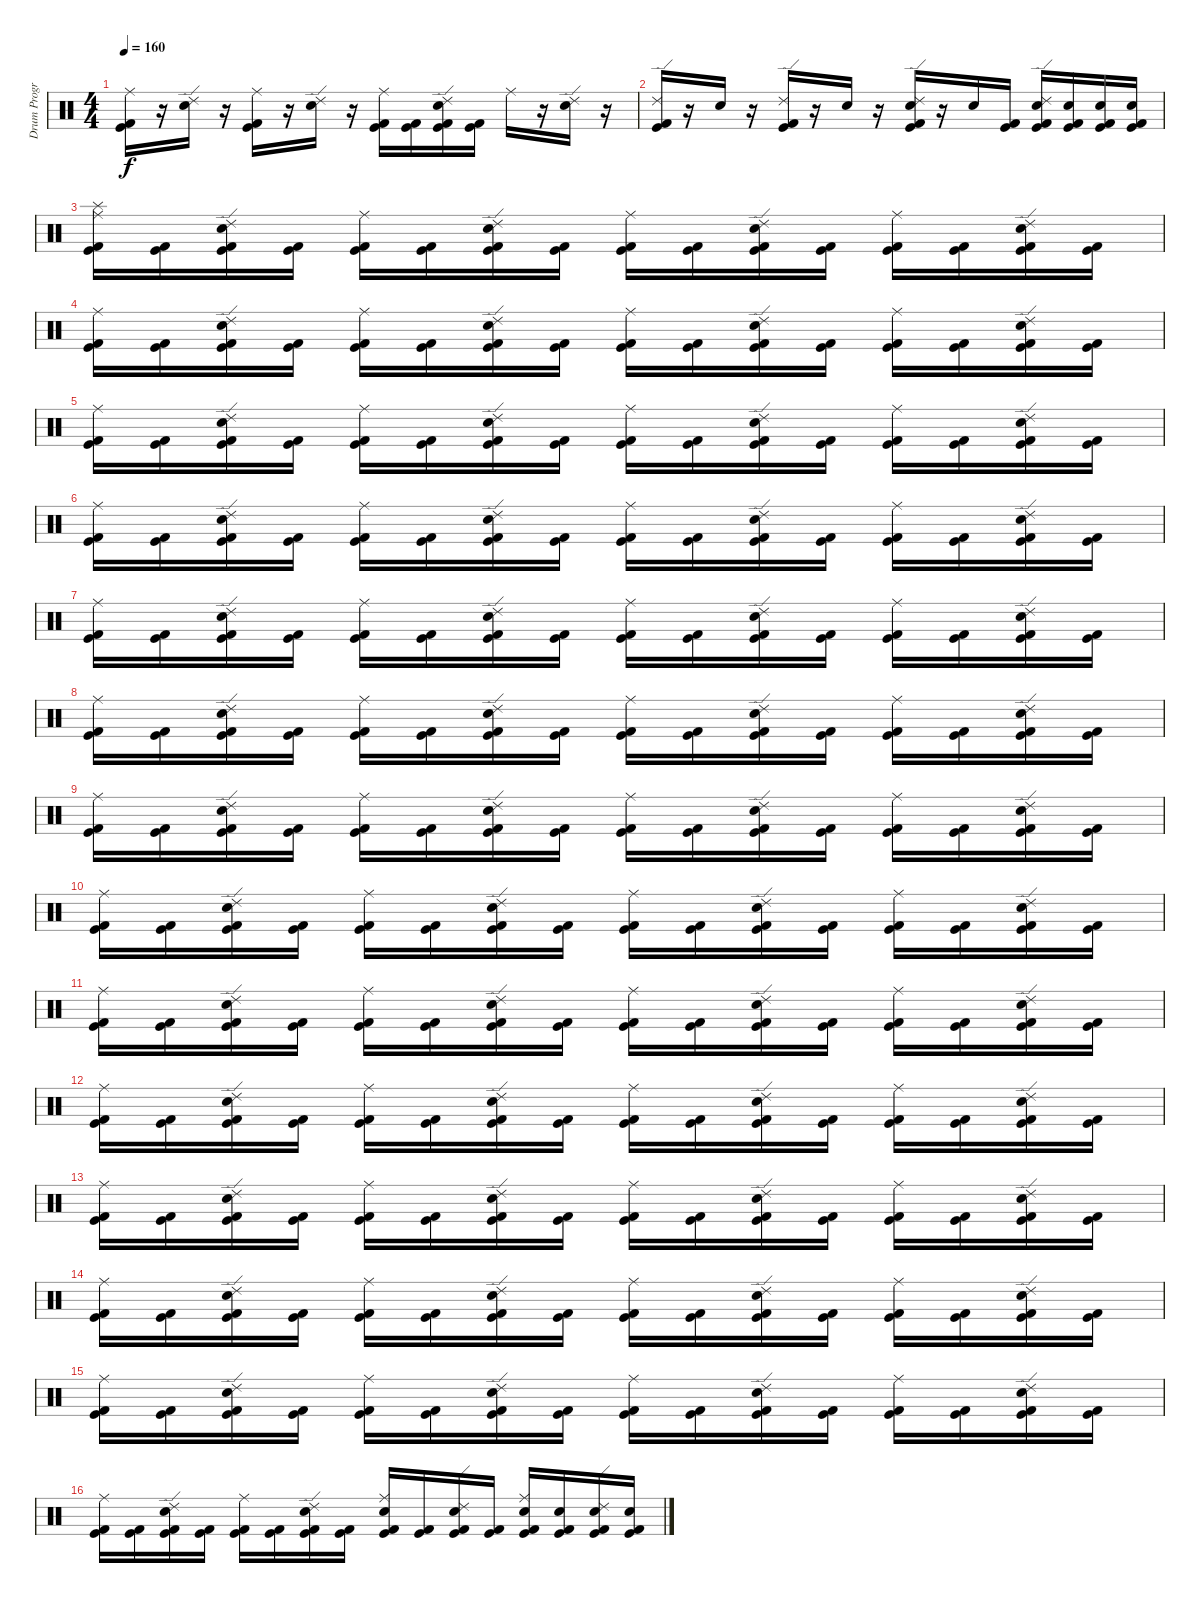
\track ("Drum Program - BG" "Drum Progr") {instrument percussion}
\staff {score}
\articulation defaults
\ts (4 4)
\tempo 160
\clef neutral
\ks c
("Kick (hit) 2" "Kick (hit)" "Ride (middle)").16{dy f} r.16 ("Electric Snare (hit)" "Ride (edge) 2").16 r.16 ("Kick (hit)" "Kick (hit) 2" "Ride (middle)").16 r.16 ("Electric Snare (hit)" "Ride (edge) 2").16 r.16 ("Kick (hit)" "Kick (hit) 2" "Ride (middle)").16 ("Kick (hit)" "Kick (hit) 2").16 ("Kick (hit)" "Kick (hit) 2" "Electric Snare (hit)" "Ride (edge) 2").16 ("Kick (hit)" "Kick (hit) 2").16 "Ride (middle)".16 r.16 ("Electric Snare (hit)" "Ride (edge) 2").16 r.16 |
("Kick (hit)" "Kick (hit) 2" "Ride (edge) 2").16 r.16 "Electric Snare (hit)".16 r.16 ("Kick (hit)" "Kick (hit) 2" "Ride (edge) 2").16 r.16 "Electric Snare (hit)".16 r.16 ("Kick (hit)" "Kick (hit) 2" "Electric Snare (hit)" "Ride (edge) 2").16 r.16 "Electric Snare (hit)".16 ("Kick (hit)" "Kick (hit) 2").16 ("Kick (hit)" "Kick (hit) 2" "Electric Snare (hit)" "Ride (edge) 2").16 ("Kick (hit)" "Kick (hit) 2" "Electric Snare (hit)").16 ("Kick (hit)" "Kick (hit) 2" "Electric Snare (hit)").16 ("Kick (hit)" "Kick (hit) 2" "Electric Snare (hit)").16 |
("Kick (hit)" "Kick (hit) 2" "Splash (hit)" "Ride (middle)").16 ("Kick (hit)" "Kick (hit) 2").16 ("Kick (hit)" "Kick (hit) 2" "Electric Snare (hit)" "Ride (edge) 2").16 ("Kick (hit)" "Kick (hit) 2").16 ("Kick (hit)" "Kick (hit) 2" "Ride (middle)").16 ("Kick (hit)" "Kick (hit) 2").16 ("Kick (hit)" "Kick (hit) 2" "Electric Snare (hit)" "Ride (edge) 2").16 ("Kick (hit)" "Kick (hit) 2").16 ("Kick (hit)" "Kick (hit) 2" "Ride (middle)").16 ("Kick (hit)" "Kick (hit) 2").16 ("Kick (hit)" "Kick (hit) 2" "Electric Snare (hit)" "Ride (edge) 2").16 ("Kick (hit)" "Kick (hit) 2").16 ("Kick (hit)" "Kick (hit) 2" "Ride (middle)").16 ("Kick (hit)" "Kick (hit) 2").16 ("Kick (hit)" "Kick (hit) 2" "Electric Snare (hit)" "Ride (edge) 2").16 ("Kick (hit)" "Kick (hit) 2").16 |
("Kick (hit)" "Kick (hit) 2" "Ride (middle)").16 ("Kick (hit)" "Kick (hit) 2").16 ("Kick (hit)" "Kick (hit) 2" "Electric Snare (hit)" "Ride (edge) 2").16 ("Kick (hit)" "Kick (hit) 2").16 ("Kick (hit)" "Kick (hit) 2" "Ride (middle)").16 ("Kick (hit)" "Kick (hit) 2").16 ("Kick (hit)" "Kick (hit) 2" "Electric Snare (hit)" "Ride (edge) 2").16 ("Kick (hit)" "Kick (hit) 2").16 ("Kick (hit)" "Kick (hit) 2" "Ride (middle)").16 ("Kick (hit)" "Kick (hit) 2").16 ("Kick (hit)" "Kick (hit) 2" "Electric Snare (hit)" "Ride (edge) 2").16 ("Kick (hit)" "Kick (hit) 2").16 ("Kick (hit)" "Kick (hit) 2" "Ride (middle)").16 ("Kick (hit)" "Kick (hit) 2").16 ("Kick (hit)" "Kick (hit) 2" "Electric Snare (hit)" "Ride (edge) 2").16 ("Kick (hit)" "Kick (hit) 2").16 |
("Kick (hit)" "Kick (hit) 2" "Ride (middle)").16 ("Kick (hit)" "Kick (hit) 2").16 ("Kick (hit)" "Kick (hit) 2" "Electric Snare (hit)" "Ride (edge) 2").16 ("Kick (hit)" "Kick (hit) 2").16 ("Kick (hit)" "Kick (hit) 2" "Ride (middle)").16 ("Kick (hit)" "Kick (hit) 2").16 ("Kick (hit)" "Kick (hit) 2" "Electric Snare (hit)" "Ride (edge) 2").16 ("Kick (hit)" "Kick (hit) 2").16 ("Kick (hit)" "Kick (hit) 2" "Ride (middle)").16 ("Kick (hit)" "Kick (hit) 2").16 ("Kick (hit)" "Kick (hit) 2" "Electric Snare (hit)" "Ride (edge) 2").16 ("Kick (hit)" "Kick (hit) 2").16 ("Kick (hit)" "Kick (hit) 2" "Ride (middle)").16 ("Kick (hit)" "Kick (hit) 2").16 ("Kick (hit)" "Kick (hit) 2" "Electric Snare (hit)" "Ride (edge) 2").16 ("Kick (hit)" "Kick (hit) 2").16 |
("Kick (hit)" "Kick (hit) 2" "Ride (middle)").16 ("Kick (hit)" "Kick (hit) 2").16 ("Kick (hit)" "Kick (hit) 2" "Electric Snare (hit)" "Ride (edge) 2").16 ("Kick (hit)" "Kick (hit) 2").16 ("Kick (hit)" "Kick (hit) 2" "Ride (middle)").16 ("Kick (hit)" "Kick (hit) 2").16 ("Kick (hit)" "Kick (hit) 2" "Electric Snare (hit)" "Ride (edge) 2").16 ("Kick (hit)" "Kick (hit) 2").16 ("Kick (hit)" "Kick (hit) 2" "Ride (middle)").16 ("Kick (hit)" "Kick (hit) 2").16 ("Kick (hit)" "Kick (hit) 2" "Electric Snare (hit)" "Ride (edge) 2").16 ("Kick (hit)" "Kick (hit) 2").16 ("Kick (hit)" "Kick (hit) 2" "Ride (middle)").16 ("Kick (hit)" "Kick (hit) 2").16 ("Kick (hit)" "Kick (hit) 2" "Electric Snare (hit)" "Ride (edge) 2").16 ("Kick (hit)" "Kick (hit) 2").16 |
("Kick (hit)" "Kick (hit) 2" "Ride (middle)").16 ("Kick (hit)" "Kick (hit) 2").16 ("Kick (hit)" "Kick (hit) 2" "Electric Snare (hit)" "Ride (edge) 2").16 ("Kick (hit)" "Kick (hit) 2").16 ("Kick (hit)" "Kick (hit) 2" "Ride (middle)").16 ("Kick (hit)" "Kick (hit) 2").16 ("Kick (hit)" "Kick (hit) 2" "Electric Snare (hit)" "Ride (edge) 2").16 ("Kick (hit)" "Kick (hit) 2").16 ("Kick (hit)" "Kick (hit) 2" "Ride (middle)").16 ("Kick (hit)" "Kick (hit) 2").16 ("Kick (hit)" "Kick (hit) 2" "Electric Snare (hit)" "Ride (edge) 2").16 ("Kick (hit)" "Kick (hit) 2").16 ("Kick (hit)" "Kick (hit) 2" "Ride (middle)").16 ("Kick (hit)" "Kick (hit) 2").16 ("Kick (hit)" "Kick (hit) 2" "Electric Snare (hit)" "Ride (edge) 2").16 ("Kick (hit)" "Kick (hit) 2").16 |
("Kick (hit)" "Kick (hit) 2" "Ride (middle)").16 ("Kick (hit)" "Kick (hit) 2").16 ("Kick (hit)" "Kick (hit) 2" "Electric Snare (hit)" "Ride (edge) 2").16 ("Kick (hit)" "Kick (hit) 2").16 ("Kick (hit)" "Kick (hit) 2" "Ride (middle)").16 ("Kick (hit)" "Kick (hit) 2").16 ("Kick (hit)" "Kick (hit) 2" "Electric Snare (hit)" "Ride (edge) 2").16 ("Kick (hit)" "Kick (hit) 2").16 ("Kick (hit)" "Kick (hit) 2" "Ride (middle)").16 ("Kick (hit)" "Kick (hit) 2").16 ("Kick (hit)" "Kick (hit) 2" "Electric Snare (hit)" "Ride (edge) 2").16 ("Kick (hit)" "Kick (hit) 2").16 ("Kick (hit)" "Kick (hit) 2" "Ride (middle)").16 ("Kick (hit)" "Kick (hit) 2").16 ("Kick (hit)" "Kick (hit) 2" "Electric Snare (hit)" "Ride (edge) 2").16 ("Kick (hit)" "Kick (hit) 2").16 |
("Kick (hit)" "Kick (hit) 2" "Ride (middle)").16 ("Kick (hit)" "Kick (hit) 2").16 ("Kick (hit)" "Kick (hit) 2" "Electric Snare (hit)" "Ride (edge) 2").16 ("Kick (hit)" "Kick (hit) 2").16 ("Kick (hit)" "Kick (hit) 2" "Ride (middle)").16 ("Kick (hit)" "Kick (hit) 2").16 ("Kick (hit)" "Kick (hit) 2" "Electric Snare (hit)" "Ride (edge) 2").16 ("Kick (hit)" "Kick (hit) 2").16 ("Kick (hit)" "Kick (hit) 2" "Ride (middle)").16 ("Kick (hit)" "Kick (hit) 2").16 ("Kick (hit)" "Kick (hit) 2" "Electric Snare (hit)" "Ride (edge) 2").16 ("Kick (hit)" "Kick (hit) 2").16 ("Kick (hit)" "Kick (hit) 2" "Ride (middle)").16 ("Kick (hit)" "Kick (hit) 2").16 ("Kick (hit)" "Kick (hit) 2" "Electric Snare (hit)" "Ride (edge) 2").16 ("Kick (hit)" "Kick (hit) 2").16 |
("Kick (hit)" "Kick (hit) 2" "Ride (middle)").16 ("Kick (hit)" "Kick (hit) 2").16 ("Kick (hit)" "Kick (hit) 2" "Electric Snare (hit)" "Ride (edge) 2").16 ("Kick (hit)" "Kick (hit) 2").16 ("Kick (hit)" "Kick (hit) 2" "Ride (middle)").16 ("Kick (hit)" "Kick (hit) 2").16 ("Kick (hit)" "Kick (hit) 2" "Electric Snare (hit)" "Ride (edge) 2").16 ("Kick (hit)" "Kick (hit) 2").16 ("Kick (hit)" "Kick (hit) 2" "Ride (middle)").16 ("Kick (hit)" "Kick (hit) 2").16 ("Kick (hit)" "Kick (hit) 2" "Electric Snare (hit)" "Ride (edge) 2").16 ("Kick (hit)" "Kick (hit) 2").16 ("Kick (hit)" "Kick (hit) 2" "Ride (middle)").16 ("Kick (hit)" "Kick (hit) 2").16 ("Kick (hit)" "Kick (hit) 2" "Electric Snare (hit)" "Ride (edge) 2").16 ("Kick (hit)" "Kick (hit) 2").16 |
("Kick (hit)" "Kick (hit) 2" "Ride (middle)").16 ("Kick (hit)" "Kick (hit) 2").16 ("Kick (hit)" "Kick (hit) 2" "Electric Snare (hit)" "Ride (edge) 2").16 ("Kick (hit)" "Kick (hit) 2").16 ("Kick (hit)" "Kick (hit) 2" "Ride (middle)").16 ("Kick (hit)" "Kick (hit) 2").16 ("Kick (hit)" "Kick (hit) 2" "Electric Snare (hit)" "Ride (edge) 2").16 ("Kick (hit)" "Kick (hit) 2").16 ("Kick (hit)" "Kick (hit) 2" "Ride (middle)").16 ("Kick (hit)" "Kick (hit) 2").16 ("Kick (hit)" "Kick (hit) 2" "Electric Snare (hit)" "Ride (edge) 2").16 ("Kick (hit)" "Kick (hit) 2").16 ("Kick (hit)" "Kick (hit) 2" "Ride (middle)").16 ("Kick (hit)" "Kick (hit) 2").16 ("Kick (hit)" "Kick (hit) 2" "Electric Snare (hit)" "Ride (edge) 2").16 ("Kick (hit)" "Kick (hit) 2").16 |
("Kick (hit)" "Kick (hit) 2" "Ride (middle)").16 ("Kick (hit)" "Kick (hit) 2").16 ("Kick (hit)" "Kick (hit) 2" "Electric Snare (hit)" "Ride (edge) 2").16 ("Kick (hit)" "Kick (hit) 2").16 ("Kick (hit)" "Kick (hit) 2" "Ride (middle)").16 ("Kick (hit)" "Kick (hit) 2").16 ("Kick (hit)" "Kick (hit) 2" "Electric Snare (hit)" "Ride (edge) 2").16 ("Kick (hit)" "Kick (hit) 2").16 ("Kick (hit)" "Kick (hit) 2" "Ride (middle)").16 ("Kick (hit)" "Kick (hit) 2").16 ("Kick (hit)" "Kick (hit) 2" "Electric Snare (hit)" "Ride (edge) 2").16 ("Kick (hit)" "Kick (hit) 2").16 ("Kick (hit)" "Kick (hit) 2" "Ride (middle)").16 ("Kick (hit)" "Kick (hit) 2").16 ("Kick (hit)" "Kick (hit) 2" "Electric Snare (hit)" "Ride (edge) 2").16 ("Kick (hit)" "Kick (hit) 2").16 |
("Kick (hit)" "Kick (hit) 2" "Ride (middle)").16 ("Kick (hit)" "Kick (hit) 2").16 ("Kick (hit)" "Kick (hit) 2" "Electric Snare (hit)" "Ride (edge) 2").16 ("Kick (hit)" "Kick (hit) 2").16 ("Kick (hit)" "Kick (hit) 2" "Ride (middle)").16 ("Kick (hit)" "Kick (hit) 2").16 ("Kick (hit)" "Kick (hit) 2" "Electric Snare (hit)" "Ride (edge) 2").16 ("Kick (hit)" "Kick (hit) 2").16 ("Kick (hit)" "Kick (hit) 2" "Ride (middle)").16 ("Kick (hit)" "Kick (hit) 2").16 ("Kick (hit)" "Kick (hit) 2" "Electric Snare (hit)" "Ride (edge) 2").16 ("Kick (hit)" "Kick (hit) 2").16 ("Kick (hit)" "Kick (hit) 2" "Ride (middle)").16 ("Kick (hit)" "Kick (hit) 2").16 ("Kick (hit)" "Kick (hit) 2" "Electric Snare (hit)" "Ride (edge) 2").16 ("Kick (hit)" "Kick (hit) 2").16 |
("Kick (hit)" "Kick (hit) 2" "Ride (middle)").16 ("Kick (hit)" "Kick (hit) 2").16 ("Kick (hit)" "Kick (hit) 2" "Electric Snare (hit)" "Ride (edge) 2").16 ("Kick (hit)" "Kick (hit) 2").16 ("Kick (hit)" "Kick (hit) 2" "Ride (middle)").16 ("Kick (hit)" "Kick (hit) 2").16 ("Kick (hit)" "Kick (hit) 2" "Electric Snare (hit)" "Ride (edge) 2").16 ("Kick (hit)" "Kick (hit) 2").16 ("Kick (hit)" "Kick (hit) 2" "Ride (middle)").16 ("Kick (hit)" "Kick (hit) 2").16 ("Kick (hit)" "Kick (hit) 2" "Electric Snare (hit)" "Ride (edge) 2").16 ("Kick (hit)" "Kick (hit) 2").16 ("Kick (hit)" "Kick (hit) 2" "Ride (middle)").16 ("Kick (hit)" "Kick (hit) 2").16 ("Kick (hit)" "Kick (hit) 2" "Electric Snare (hit)" "Ride (edge) 2").16 ("Kick (hit)" "Kick (hit) 2").16 |
("Kick (hit)" "Kick (hit) 2" "Ride (middle)").16 ("Kick (hit)" "Kick (hit) 2").16 ("Kick (hit)" "Kick (hit) 2" "Electric Snare (hit)" "Ride (edge) 2").16 ("Kick (hit)" "Kick (hit) 2").16 ("Kick (hit)" "Kick (hit) 2" "Ride (middle)").16 ("Kick (hit)" "Kick (hit) 2").16 ("Kick (hit)" "Kick (hit) 2" "Electric Snare (hit)" "Ride (edge) 2").16 ("Kick (hit)" "Kick (hit) 2").16 ("Kick (hit)" "Kick (hit) 2" "Ride (middle)").16 ("Kick (hit)" "Kick (hit) 2").16 ("Kick (hit)" "Kick (hit) 2" "Electric Snare (hit)" "Ride (edge) 2").16 ("Kick (hit)" "Kick (hit) 2").16 ("Kick (hit)" "Kick (hit) 2" "Ride (middle)").16 ("Kick (hit)" "Kick (hit) 2").16 ("Kick (hit)" "Kick (hit) 2" "Electric Snare (hit)" "Ride (edge) 2").16 ("Kick (hit)" "Kick (hit) 2").16 |
("Kick (hit)" "Kick (hit) 2" "Ride (middle)").16 ("Kick (hit)" "Kick (hit) 2").16 ("Kick (hit)" "Kick (hit) 2" "Electric Snare (hit)" "Ride (edge) 2").16 ("Kick (hit)" "Kick (hit) 2").16 ("Kick (hit)" "Kick (hit) 2" "Ride (middle)").16 ("Kick (hit)" "Kick (hit) 2").16 ("Kick (hit)" "Kick (hit) 2" "Electric Snare (hit)" "Ride (edge) 2").16 ("Kick (hit)" "Kick (hit) 2").16 ("Kick (hit)" "Kick (hit) 2" "Electric Snare (hit)" "Ride (middle)").16 ("Kick (hit)" "Kick (hit) 2").16 ("Kick (hit)" "Kick (hit) 2" "Electric Snare (hit)" "Ride (edge) 2").16 ("Kick (hit)" "Kick (hit) 2").16 ("Kick (hit)" "Kick (hit) 2" "Electric Snare (hit)" "Ride (middle)").16 ("Kick (hit)" "Kick (hit) 2" "Electric Snare (hit)").16 ("Kick (hit)" "Kick (hit) 2" "Electric Snare (hit)" "Ride (edge) 2").16 ("Kick (hit)" "Kick (hit) 2" "Electric Snare (hit)").16
